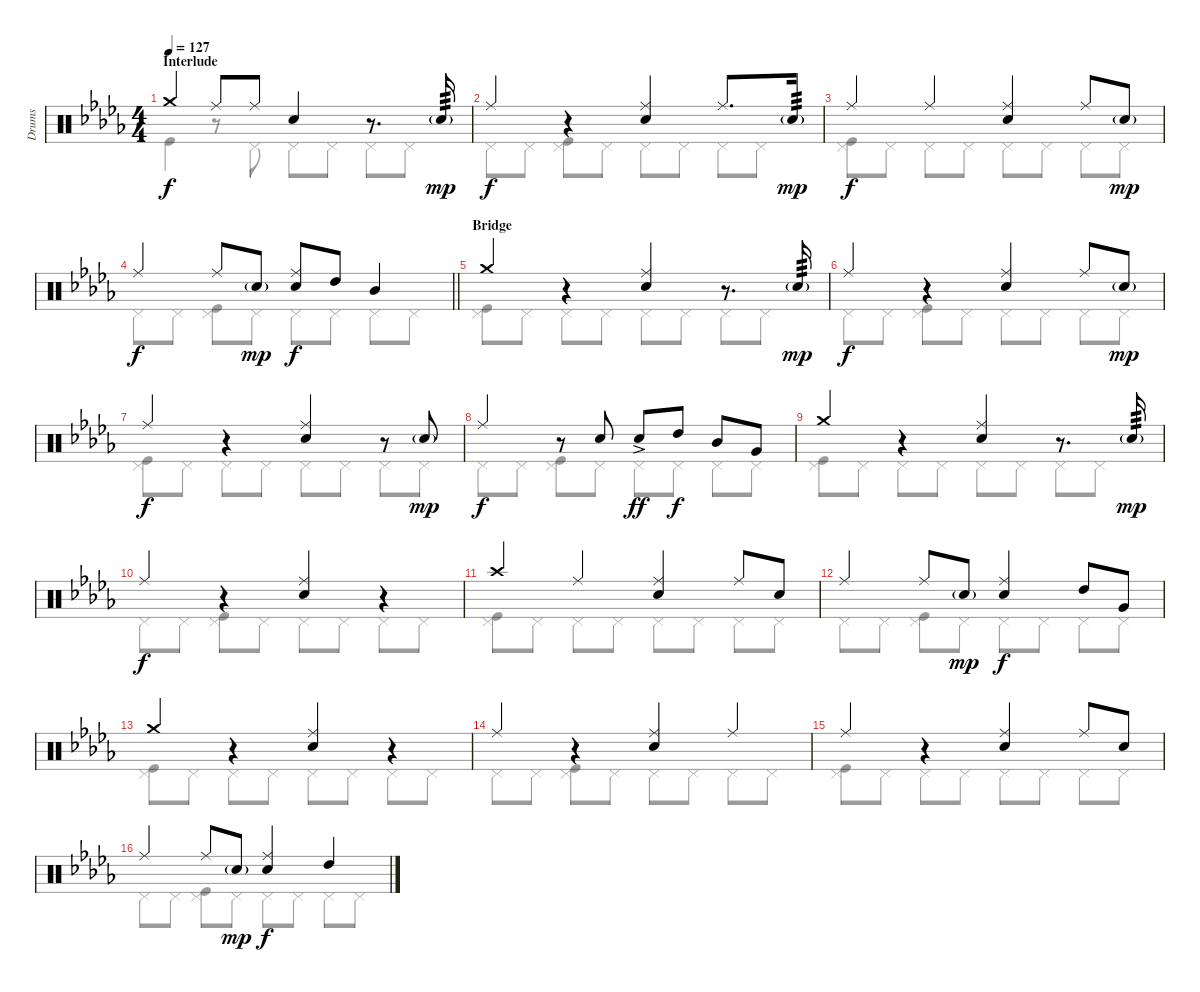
\track ("Drums" "Drums") {instrument percussion}
\staff {score}
\articulation defaults
\voice
\ts (4 4)
\section ("" "Interlude")
\tempo 127
\clef neutral
\ks bbminor "Crash medium (hit)".4{dy f} "Ride (middle)".8 "Ride (middle)".8 "Electric Snare (hit)".4
r.8{d} "Electric Snare (hit)"{g}.16{tp 3 dy mp} |
"Ride (middle)".4{dy f} r.4 ("Ride (middle)" "Electric Snare (hit)").4 "Ride (middle)".8{d} "Electric Snare (hit)"{g}.16{tp 3 dy mp} |
"Ride (middle)".4{dy f} "Ride (middle)".4 ("Ride (middle)" "Electric Snare (hit)").4 "Ride (middle)".8 "Electric Snare (hit)"{g}.8{dy mp} |
\barLineRight lightlight "Ride (middle)".4{dy f} "Ride (middle)".8 "Electric Snare (hit)"{g}.8{dy mp}
("Ride (middle)" "Electric Snare (hit)").8{dy f} "High Tom (hit)".8 "Mid Tom (hit)".4 |
\section ("" "Bridge")
"Crash medium (hit)".4 r.4 ("Ride (middle)" "Electric Snare (hit)").4 r.8{d} "Electric Snare (hit)"{g}.16{tp 3 dy mp} |
"Ride (middle)".4{dy f} r.4 ("Ride (middle)" "Electric Snare (hit)").4 "Ride (middle)".8 "Electric Snare (hit)"{g}.8{dy mp} |
"Ride (middle)".4{dy f} r.4 ("Ride (middle)" "Electric Snare (hit)").4 r.8 "Electric Snare (hit)"{g}.8{dy mp} |
"Ride (middle)".4{dy f} r.8 "Electric Snare (hit)".8 "Electric Snare (hit)"{ac}.8{dy ff} "High Tom (hit)".8{dy f} "Mid Tom (hit)".8 "Very Low Tom (hit)".8 |
"Crash medium (hit)".4 r.4 ("Ride (middle)" "Electric Snare (hit)").4 r.8{d} "Electric Snare (hit)"{g}.16{tp 3 dy mp} |
"Ride (middle)".4{dy f} r.4 ("Ride (middle)" "Electric Snare (hit)").4 r.4 |
"Crash high (hit)".4 "Ride (middle)".4 ("Ride (middle)" "Electric Snare (hit)").4 "Ride (middle)".8 "Electric Snare (hit)".8 |
"Ride (middle)".4 "Ride (middle)".8 "Electric Snare (hit)"{g}.8{dy mp} ("Ride (middle)" "Electric Snare (hit)").4{dy f} "High Tom (hit)".8 "Very Low Tom (hit)".8 |
"Crash medium (hit)".4 r.4 ("Ride (middle)" "Electric Snare (hit)").4 r.4 |
"Ride (middle)".4 r.4 ("Ride (middle)" "Electric Snare (hit)").4 "Ride (middle)".4 |
"Ride (middle)".4 r.4 ("Ride (middle)" "Electric Snare (hit)").4 "Ride (middle)".8 "Electric Snare (hit)".8 |
"Ride (middle)".4 "Ride (middle)".8 "Electric Snare (hit)"{g}.8{dy mp} ("Ride (middle)" "Electric Snare (hit)").4{dy f} "High Tom (hit)".4
\voice
\clef neutral
\ottava regular
\simile none
\ks bbminor "Kick (hit)".4{dy f}
r.8 "Pedal Hi-Hat (hit)".8 "Pedal Hi-Hat (hit)".8 "Pedal Hi-Hat (hit)".8 "Pedal Hi-Hat (hit)".8 "Pedal Hi-Hat (hit)".8 |
"Pedal Hi-Hat (hit)".8 "Pedal Hi-Hat (hit)".8 ("Pedal Hi-Hat (hit)" "Kick (hit)").8 "Pedal Hi-Hat (hit)".8 "Pedal Hi-Hat (hit)".8 "Pedal Hi-Hat (hit)".8 "Pedal Hi-Hat (hit)".8 "Pedal Hi-Hat (hit)".8 |
("Pedal Hi-Hat (hit)" "Kick (hit)").8 "Pedal Hi-Hat (hit)".8 "Pedal Hi-Hat (hit)".8 "Pedal Hi-Hat (hit)".8 "Pedal Hi-Hat (hit)".8 "Pedal Hi-Hat (hit)".8 "Pedal Hi-Hat (hit)".8 "Pedal Hi-Hat (hit)".8 |
\barLineRight lightlight "Pedal Hi-Hat (hit)".8 "Pedal Hi-Hat (hit)".8
("Pedal Hi-Hat (hit)" "Kick (hit)").8 "Pedal Hi-Hat (hit)".8 "Pedal Hi-Hat (hit)".8 "Pedal Hi-Hat (hit)".8 "Pedal Hi-Hat (hit)".8 "Pedal Hi-Hat (hit)".8 |
("Pedal Hi-Hat (hit)" "Kick (hit)").8 "Pedal Hi-Hat (hit)".8 "Pedal Hi-Hat (hit)".8 "Pedal Hi-Hat (hit)".8 "Pedal Hi-Hat (hit)".8 "Pedal Hi-Hat (hit)".8 "Pedal Hi-Hat (hit)".8 "Pedal Hi-Hat (hit)".8 |
"Pedal Hi-Hat (hit)".8 "Pedal Hi-Hat (hit)".8 ("Pedal Hi-Hat (hit)" "Kick (hit)").8 "Pedal Hi-Hat (hit)".8 "Pedal Hi-Hat (hit)".8 "Pedal Hi-Hat (hit)".8 "Pedal Hi-Hat (hit)".8 "Pedal Hi-Hat (hit)".8 |
("Pedal Hi-Hat (hit)" "Kick (hit)").8 "Pedal Hi-Hat (hit)".8 "Pedal Hi-Hat (hit)".8 "Pedal Hi-Hat (hit)".8 "Pedal Hi-Hat (hit)".8 "Pedal Hi-Hat (hit)".8 "Pedal Hi-Hat (hit)".8 "Pedal Hi-Hat (hit)".8 |
"Pedal Hi-Hat (hit)".8 "Pedal Hi-Hat (hit)".8 ("Pedal Hi-Hat (hit)" "Kick (hit)").8 "Pedal Hi-Hat (hit)".8 "Pedal Hi-Hat (hit)".8 "Pedal Hi-Hat (hit)".8 "Pedal Hi-Hat (hit)".8 "Pedal Hi-Hat (hit)".8 |
("Pedal Hi-Hat (hit)" "Kick (hit)").8 "Pedal Hi-Hat (hit)".8 "Pedal Hi-Hat (hit)".8 "Pedal Hi-Hat (hit)".8 "Pedal Hi-Hat (hit)".8 "Pedal Hi-Hat (hit)".8 "Pedal Hi-Hat (hit)".8 "Pedal Hi-Hat (hit)".8 |
"Pedal Hi-Hat (hit)".8 "Pedal Hi-Hat (hit)".8 ("Pedal Hi-Hat (hit)" "Kick (hit)").8 "Pedal Hi-Hat (hit)".8 "Pedal Hi-Hat (hit)".8 "Pedal Hi-Hat (hit)".8 "Pedal Hi-Hat (hit)".8 "Pedal Hi-Hat (hit)".8 |
("Pedal Hi-Hat (hit)" "Kick (hit)").8 "Pedal Hi-Hat (hit)".8 "Pedal Hi-Hat (hit)".8 "Pedal Hi-Hat (hit)".8 "Pedal Hi-Hat (hit)".8 "Pedal Hi-Hat (hit)".8 "Pedal Hi-Hat (hit)".8 "Pedal Hi-Hat (hit)".8 |
"Pedal Hi-Hat (hit)".8 "Pedal Hi-Hat (hit)".8 ("Pedal Hi-Hat (hit)" "Kick (hit)").8 "Pedal Hi-Hat (hit)".8 "Pedal Hi-Hat (hit)".8 "Pedal Hi-Hat (hit)".8 "Pedal Hi-Hat (hit)".8 "Pedal Hi-Hat (hit)".8 |
("Pedal Hi-Hat (hit)" "Kick (hit)").8 "Pedal Hi-Hat (hit)".8 "Pedal Hi-Hat (hit)".8 "Pedal Hi-Hat (hit)".8 "Pedal Hi-Hat (hit)".8 "Pedal Hi-Hat (hit)".8 "Pedal Hi-Hat (hit)".8 "Pedal Hi-Hat (hit)".8 |
"Pedal Hi-Hat (hit)".8 "Pedal Hi-Hat (hit)".8 ("Pedal Hi-Hat (hit)" "Kick (hit)").8 "Pedal Hi-Hat (hit)".8 "Pedal Hi-Hat (hit)".8 "Pedal Hi-Hat (hit)".8 "Pedal Hi-Hat (hit)".8 "Pedal Hi-Hat (hit)".8 |
("Pedal Hi-Hat (hit)" "Kick (hit)").8 "Pedal Hi-Hat (hit)".8 "Pedal Hi-Hat (hit)".8 "Pedal Hi-Hat (hit)".8 "Pedal Hi-Hat (hit)".8 "Pedal Hi-Hat (hit)".8 "Pedal Hi-Hat (hit)".8 "Pedal Hi-Hat (hit)".8 |
"Pedal Hi-Hat (hit)".8 "Pedal Hi-Hat (hit)".8 ("Pedal Hi-Hat (hit)" "Kick (hit)").8 "Pedal Hi-Hat (hit)".8 "Pedal Hi-Hat (hit)".8 "Pedal Hi-Hat (hit)".8 "Pedal Hi-Hat (hit)".8 "Pedal Hi-Hat (hit)".8
